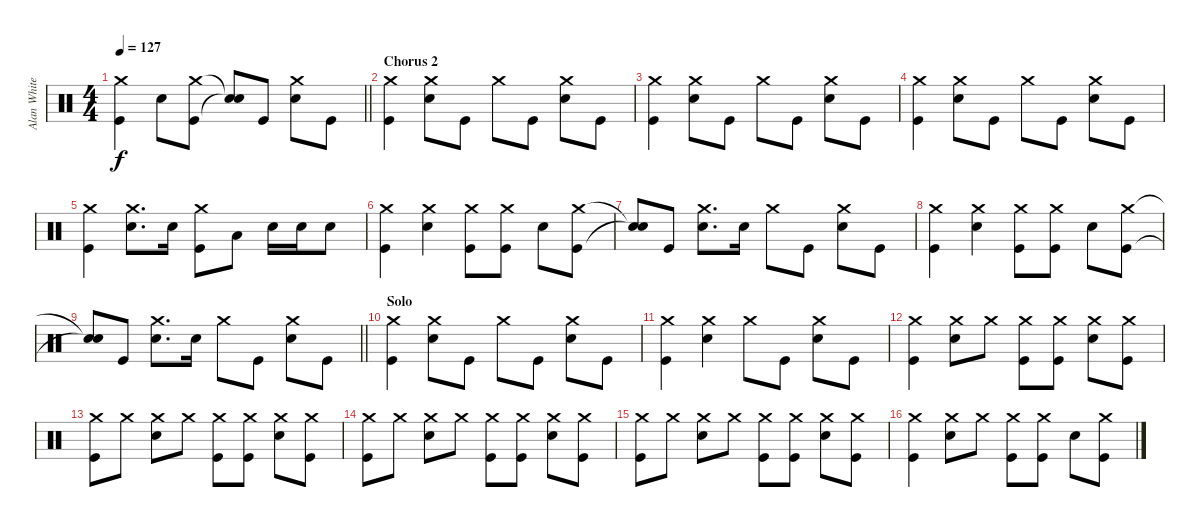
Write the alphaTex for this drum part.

\track ("Alan White (Percussion)" "Alan White") {instrument percussion}
\staff {score}
\articulation defaults
\ts (4 4)
\tempo 127
\clef neutral
\barLineRight lightlight
\ks c
("Crash medium (hit)" "Kick (hit)").4{dy f} "Snare (hit) 2".8 ("Crash medium (hit)" "Kick (hit)").8 ("Snare (hit)"{t} "Snare (hit)"{t}).8 "Kick (hit)".8 ("Crash medium (hit)" "Snare (hit) 2").8 "Kick (hit)".8 |
\section ("" "Chorus 2")
("Crash medium (hit)" "Kick (hit)").4 ("Crash medium (hit)" "Snare (hit) 2").8 "Kick (hit)".8 "Crash medium (hit)".8 "Kick (hit)".8 ("Crash medium (hit)" "Snare (hit) 2").8 "Kick (hit)".8 |
("Crash medium (hit)" "Kick (hit)").4 ("Crash medium (hit)" "Snare (hit) 2").8 "Kick (hit)".8 "Crash medium (hit)".8 "Kick (hit)".8 ("Crash medium (hit)" "Snare (hit) 2").8 "Kick (hit)".8 |
("Crash medium (hit)" "Kick (hit)").4 ("Crash medium (hit)" "Snare (hit) 2").8 "Kick (hit)".8 "Crash medium (hit)".8 "Kick (hit)".8 ("Crash medium (hit)" "Snare (hit) 2").8 "Kick (hit)".8 |
("Crash medium (hit)" "Kick (hit)").4 ("Crash medium (hit)" "Snare (hit) 2").8{d} "Snare (hit) 2".16 ("Crash medium (hit)" "Kick (hit)").8 "Low Tom (hit)".8 "Snare (hit) 2".16 "Snare (hit) 2".16 "Snare (hit) 2".8 |
("Crash medium (hit)" "Kick (hit)").4 ("Crash medium (hit)" "Snare (hit) 2").4 ("Crash medium (hit)" "Kick (hit)").8 ("Crash medium (hit)" "Kick (hit)").8 "Snare (hit) 2".8 ("Crash medium (hit)" "Kick (hit)").8 |
("Snare (hit)"{t} "Snare (hit)"{t}).8 "Kick (hit)".8 ("Crash medium (hit)" "Snare (hit) 2").8{d} "Snare (hit) 2".16 "Crash medium (hit)".8 "Kick (hit)".8 ("Crash medium (hit)" "Snare (hit) 2").8 "Kick (hit)".8 |
("Crash medium (hit)" "Kick (hit)").4 ("Crash medium (hit)" "Snare (hit) 2").4 ("Crash medium (hit)" "Kick (hit)").8 ("Crash medium (hit)" "Kick (hit)").8 "Snare (hit) 2".8 ("Crash medium (hit)" "Kick (hit)").8 |
\barLineRight lightlight
("Snare (hit)"{t} "Snare (hit)"{t}).8 "Kick (hit)".8 ("Crash medium (hit)" "Snare (hit) 2").8{d} "Snare (hit) 2".16 "Crash medium (hit)".8 "Kick (hit)".8 ("Crash medium (hit)" "Snare (hit) 2").8 "Kick (hit)".8 |
\section ("" "Solo")
("Crash medium (hit)" "Kick (hit)").4 ("Crash medium (hit)" "Snare (hit) 2").8 "Kick (hit)".8 "Crash medium (hit)".8 "Kick (hit)".8 ("Crash medium (hit)" "Snare (hit) 2").8 "Kick (hit)".8 |
("Crash medium (hit)" "Kick (hit)").4 ("Crash medium (hit)" "Snare (hit) 2").4 "Crash medium (hit)".8 "Kick (hit)".8 ("Crash medium (hit)" "Snare (hit) 2").8 "Kick (hit)".8 |
("Crash medium (hit)" "Kick (hit)").4 ("Crash medium (hit)" "Snare (hit) 2").8 "Crash medium (hit)".8 ("Crash medium (hit)" "Kick (hit)").8 ("Crash medium (hit)" "Kick (hit)").8 ("Crash medium (hit)" "Snare (hit) 2").8 ("Crash medium (hit)" "Kick (hit)").8 |
("Crash medium (hit)" "Kick (hit)").8 "Crash medium (hit)".8 ("Crash medium (hit)" "Snare (hit) 2").8 "Crash medium (hit)".8 ("Crash medium (hit)" "Kick (hit)").8 ("Crash medium (hit)" "Kick (hit)").8 ("Crash medium (hit)" "Snare (hit) 2").8 ("Crash medium (hit)" "Kick (hit)").8 |
("Crash medium (hit)" "Kick (hit)").8 "Crash medium (hit)".8 ("Crash medium (hit)" "Snare (hit) 2").8 "Crash medium (hit)".8 ("Crash medium (hit)" "Kick (hit)").8 ("Crash medium (hit)" "Kick (hit)").8 ("Crash medium (hit)" "Snare (hit) 2").8 ("Crash medium (hit)" "Kick (hit)").8 |
("Crash medium (hit)" "Kick (hit)").8 "Crash medium (hit)".8 ("Crash medium (hit)" "Snare (hit) 2").8 "Crash medium (hit)".8 ("Crash medium (hit)" "Kick (hit)").8 ("Crash medium (hit)" "Kick (hit)").8 ("Crash medium (hit)" "Snare (hit) 2").8 ("Crash medium (hit)" "Kick (hit)").8 |
("Crash medium (hit)" "Kick (hit)").4 ("Crash medium (hit)" "Snare (hit) 2").8 "Crash medium (hit)".8 ("Crash medium (hit)" "Kick (hit)").8 ("Crash medium (hit)" "Kick (hit)").8 "Snare (hit) 2".8 ("Crash medium (hit)" "Kick (hit)").8
